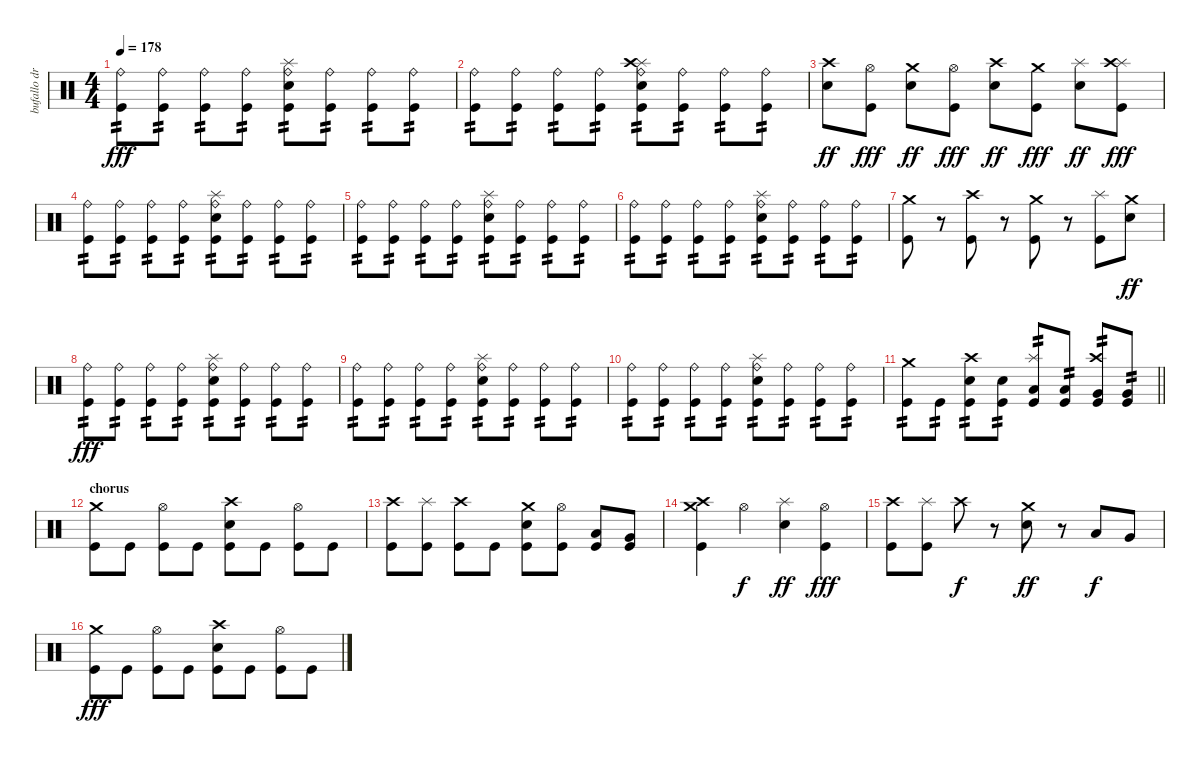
\track ("bufallo drums" "bufallo dr") {instrument percussion}
\staff {score}
\articulation defaults
\ts (4 4)
\tempo 178
\clef neutral
\ks c
("Ride (bell)" "Kick (hit)").8{tp 2 dy fff} ("Ride (bell)" "Kick (hit)").8{tp 2} ("Ride (bell)" "Kick (hit)").8{tp 2} ("Ride (bell)" "Kick (hit)").8{tp 2} ("Ride (bell)" "Splash (hit)" "Electric Snare (hit)" "Kick (hit)").8{tp 2} ("Ride (bell)" "Kick (hit)").8{tp 2} ("Ride (bell)" "Kick (hit)").8{tp 2} ("Ride (bell)" "Kick (hit)").8{tp 2} |
("Ride (bell)" "Kick (hit)").8{tp 2} ("Ride (bell)" "Kick (hit)").8{tp 2} ("Ride (bell)" "Kick (hit)").8{tp 2} ("Ride (bell)" "Kick (hit)").8{tp 2} ("Ride (bell)" "Splash (hit)" "Electric Snare (hit)" "Crash high (hit)" "Kick (hit)").8{tp 2} ("Ride (bell)" "Kick (hit)").8{tp 2} ("Ride (bell)" "Kick (hit)").8{tp 2} ("Ride (bell)" "Kick (hit)").8{tp 2} |
("Crash high (hit)" "Electric Snare (hit)").8{dy ff} ("Hi-Hat (open)" "Kick (hit)").8{dy fff} ("Crash medium (hit)" "Electric Snare (hit)").8{dy ff} ("Hi-Hat (open)" "Kick (hit)").8{dy fff} ("Crash high (hit)" "Electric Snare (hit)").8{dy ff} ("Crash medium (hit)" "Kick (hit)").8{dy fff} ("Splash (hit)" "Electric Snare (hit)").8{dy ff} ("Splash (hit)" "Crash high (hit)" "Kick (hit)").8{dy fff} |
("Ride (bell)" "Kick (hit)").8{tp 2} ("Ride (bell)" "Kick (hit)").8{tp 2} ("Ride (bell)" "Kick (hit)").8{tp 2} ("Ride (bell)" "Kick (hit)").8{tp 2} ("Ride (bell)" "Splash (hit)" "Electric Snare (hit)" "Kick (hit)").8{tp 2} ("Ride (bell)" "Kick (hit)").8{tp 2} ("Ride (bell)" "Kick (hit)").8{tp 2} ("Ride (bell)" "Kick (hit)").8{tp 2} |
("Ride (bell)" "Kick (hit)").8{tp 2} ("Ride (bell)" "Kick (hit)").8{tp 2} ("Ride (bell)" "Kick (hit)").8{tp 2} ("Ride (bell)" "Kick (hit)").8{tp 2} ("Ride (bell)" "Splash (hit)" "Electric Snare (hit)" "Kick (hit)").8{tp 2} ("Ride (bell)" "Kick (hit)").8{tp 2} ("Ride (bell)" "Kick (hit)").8{tp 2} ("Ride (bell)" "Kick (hit)").8{tp 2} |
("Ride (bell)" "Kick (hit)").8{tp 2} ("Ride (bell)" "Kick (hit)").8{tp 2} ("Ride (bell)" "Kick (hit)").8{tp 2} ("Ride (bell)" "Kick (hit)").8{tp 2} ("Ride (bell)" "Splash (hit)" "Electric Snare (hit)" "Kick (hit)").8{tp 2} ("Ride (bell)" "Kick (hit)").8{tp 2} ("Ride (bell)" "Kick (hit)").8{tp 2} ("Ride (bell)" "Kick (hit)").8{tp 2} |
("Crash medium (hit)" "Kick (hit)").8 r.8 ("Crash high (hit)" "Kick (hit)").8 r.8 ("Crash medium (hit)" "Kick (hit)").8 r.8 ("Splash (hit)" "Kick (hit)").8 ("Crash medium (hit)" "Electric Snare (hit)").8{dy ff} |
("Ride (bell)" "Kick (hit)").8{tp 2 dy fff} ("Ride (bell)" "Kick (hit)").8{tp 2} ("Ride (bell)" "Kick (hit)").8{tp 2} ("Ride (bell)" "Kick (hit)").8{tp 2} ("Ride (bell)" "Splash (hit)" "Electric Snare (hit)" "Kick (hit)").8{tp 2} ("Ride (bell)" "Kick (hit)").8{tp 2} ("Ride (bell)" "Kick (hit)").8{tp 2} ("Ride (bell)" "Kick (hit)").8{tp 2} |
("Ride (bell)" "Kick (hit)").8{tp 2} ("Ride (bell)" "Kick (hit)").8{tp 2} ("Ride (bell)" "Kick (hit)").8{tp 2} ("Ride (bell)" "Kick (hit)").8{tp 2} ("Ride (bell)" "Splash (hit)" "Electric Snare (hit)" "Kick (hit)").8{tp 2} ("Ride (bell)" "Kick (hit)").8{tp 2} ("Ride (bell)" "Kick (hit)").8{tp 2} ("Ride (bell)" "Kick (hit)").8{tp 2} |
("Ride (bell)" "Kick (hit)").8{tp 2} ("Ride (bell)" "Kick (hit)").8{tp 2} ("Ride (bell)" "Kick (hit)").8{tp 2} ("Ride (bell)" "Kick (hit)").8{tp 2} ("Ride (bell)" "Splash (hit)" "Electric Snare (hit)" "Kick (hit)").8{tp 2} ("Ride (bell)" "Kick (hit)").8{tp 2} ("Ride (bell)" "Kick (hit)").8{tp 2} ("Ride (bell)" "Kick (hit)").8{tp 2} |
\barLineRight lightlight
("Crash medium (hit)" "Kick (hit)").8{tp 2} "Kick (hit)".8{tp 2} ("Crash high (hit)" "Electric Snare (hit)" "Kick (hit)").8{tp 2} ("Electric Snare (hit)" "Kick (hit)").8{tp 2} ("Splash (hit)" "Low Tom (hit)" "Kick (hit)").8{tp 2} ("Low Tom (hit)" "Kick (hit)").8{tp 2} ("Crash high (hit)" "Very Low Tom (hit)" "Kick (hit)").8{tp 2} ("Very Low Tom (hit)" "Kick (hit)").8{tp 2} |
\section ("" "chorus")
("Crash medium (hit)" "Kick (hit)").8 "Kick (hit)".8 ("Hi-Hat (open)" "Kick (hit)").8 "Kick (hit)".8 ("Electric Snare (hit)" "Crash high (hit)" "Kick (hit)").8 "Kick (hit)".8 ("Hi-Hat (open)" "Kick (hit)").8 "Kick (hit)".8 |
("Crash high (hit)" "Kick (hit)").8 ("Splash (hit)" "Kick (hit)").8 ("Crash high (hit)" "Kick (hit)").8 "Kick (hit)".8 ("Crash medium (hit)" "Electric Snare (hit)" "Kick (hit)").8 ("Hi-Hat (open)" "Kick (hit)").8 ("Low Tom (hit)" "Kick (hit)").8 ("Very Low Tom (hit)" "Kick (hit)").8 |
("Crash medium (hit)" "Crash high (hit)" "Kick (hit)").4 "Hi-Hat (open)".4{dy f} ("Splash (hit)" "Electric Snare (hit)").4{dy ff} ("Hi-Hat (open)" "Kick (hit)").4{dy fff} |
("Crash high (hit)" "Kick (hit)").8 ("Splash (hit)" "Kick (hit)").8 "Crash high (hit)".8{dy f} r.8 ("Crash medium (hit)" "Electric Snare (hit)").8{dy ff} r.8 "Low Tom (hit)".8{dy f} "Very Low Tom (hit)".8 |
("Crash medium (hit)" "Kick (hit)").8{dy fff} "Kick (hit)".8 ("Hi-Hat (open)" "Kick (hit)").8 "Kick (hit)".8 ("Electric Snare (hit)" "Crash high (hit)" "Kick (hit)").8 "Kick (hit)".8 ("Hi-Hat (open)" "Kick (hit)").8 "Kick (hit)".8
